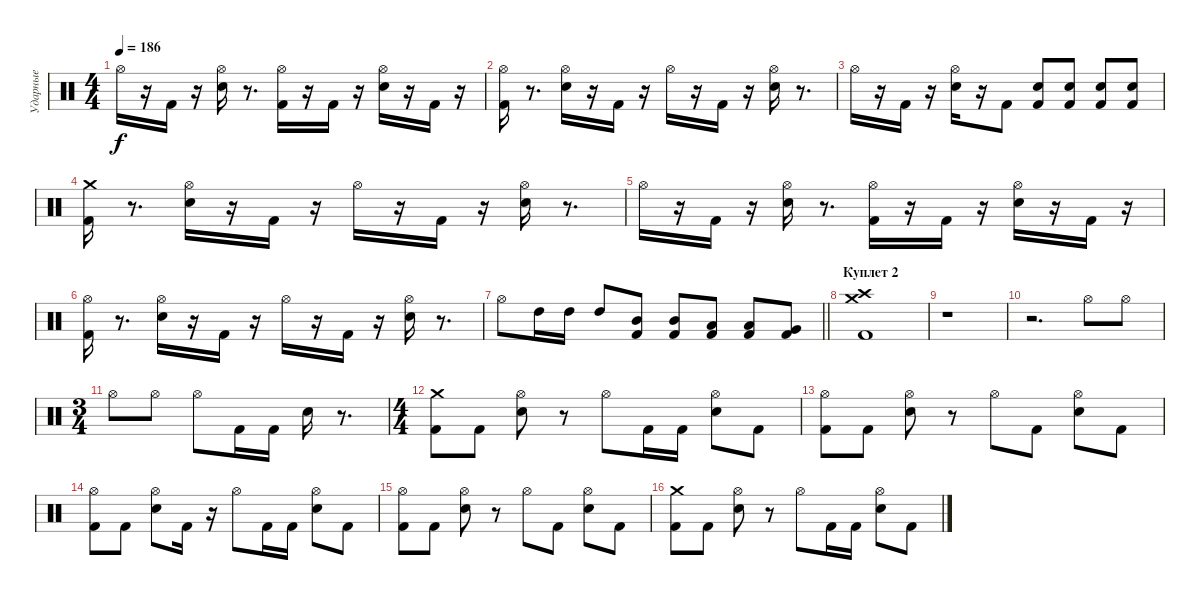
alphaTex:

\track ("Ударные" "Ударные") {instrument percussion}
\staff {score}
\articulation defaults
\ts (4 4)
\tempo 186
\clef neutral
\ks c "Hi-Hat (open)".16{dy f}
r.16 "Kick (hit) 2".16 r.16 ("Snare (hit) 2" "Hi-Hat (open)").16 r.8{d} ("Kick (hit) 2" "Hi-Hat (open)").16 r.16 "Kick (hit) 2".16 r.16 ("Snare (hit) 2" "Hi-Hat (open)").16 r.16 "Kick (hit) 2".16 r.16 |
("Kick (hit) 2" "Hi-Hat (open)").16 r.8{d} ("Snare (hit) 2" "Hi-Hat (open)").16 r.16 "Kick (hit) 2".16 r.16 "Hi-Hat (open)".16 r.16 "Kick (hit) 2".16 r.16 ("Snare (hit) 2" "Hi-Hat (open)").16 r.8{d} |
"Hi-Hat (open)".16 r.16 "Kick (hit) 2".16 r.16 ("Snare (hit) 2" "Hi-Hat (open)").16 r.16 "Kick (hit) 2".8 ("Kick (hit) 2" "Snare (hit) 2").8 ("Kick (hit) 2" "Snare (hit) 2").8 ("Kick (hit) 2" "Snare (hit) 2").8 ("Kick (hit) 2" "Snare (hit) 2").8 |
("Kick (hit) 2" "Crash medium (hit)").16 r.8{d} ("Snare (hit) 2" "Hi-Hat (open)").16 r.16 "Kick (hit) 2".16 r.16 "Hi-Hat (open)".16 r.16 "Kick (hit) 2".16 r.16 ("Snare (hit) 2" "Hi-Hat (open)").16 r.8{d} |
"Hi-Hat (open)".16 r.16 "Kick (hit) 2".16 r.16 ("Snare (hit) 2" "Hi-Hat (open)").16 r.8{d} ("Kick (hit) 2" "Hi-Hat (open)").16 r.16 "Kick (hit) 2".16 r.16 ("Snare (hit) 2" "Hi-Hat (open)").16 r.16 "Kick (hit) 2".16 r.16 |
("Kick (hit) 2" "Hi-Hat (open)").16 r.8{d} ("Snare (hit) 2" "Hi-Hat (open)").16 r.16 "Kick (hit) 2".16 r.16 "Hi-Hat (open)".16 r.16 "Kick (hit) 2".16 r.16 ("Snare (hit) 2" "Hi-Hat (open)").16 r.8{d} |
\barLineRight lightlight "Hi-Hat (open)".8 "High Tom (hit)".16 "High Tom (hit)".16 "High Tom (hit)".8
("Kick (hit) 2" "Mid Tom (hit)").8 ("Kick (hit) 2" "Mid Tom (hit)").8 ("Kick (hit) 2" "Low Tom (hit)").8 ("Kick (hit) 2" "Low Tom (hit)").8 ("Kick (hit) 2" "Very Low Tom (hit)").8 |
\section ("" "Куплет 2")
("Kick (hit) 2" "Crash high (hit)" "Crash medium (hit)").1 |
r.1 |
r.2{d} "Hi-Hat (open)".8 "Hi-Hat (open)".8 |
\ts (3 4)
"Hi-Hat (open)".8 "Hi-Hat (open)".8 "Hi-Hat (open)".8 "Kick (hit) 2".16 "Kick (hit) 2".16 "Snare (hit) 2".16 r.8{d} |
\ts (4 4)
("Kick (hit) 2" "Crash medium (hit)").8 "Kick (hit) 2".8 ("Snare (hit) 2" "Hi-Hat (open)").8 r.8 "Hi-Hat (open)".8 "Kick (hit) 2".16 "Kick (hit) 2".16 ("Snare (hit) 2" "Hi-Hat (open)").8 "Kick (hit) 2".8 |
("Kick (hit) 2" "Hi-Hat (open)").8 "Kick (hit) 2".8 ("Snare (hit) 2" "Hi-Hat (open)").8 r.8 "Hi-Hat (open)".8 "Kick (hit) 2".8 ("Snare (hit) 2" "Hi-Hat (open)").8 "Kick (hit) 2".8 |
("Kick (hit) 2" "Hi-Hat (open)").8 "Kick (hit) 2".8 ("Snare (hit) 2" "Hi-Hat (open)").8 "Kick (hit) 2".16 r.16 "Hi-Hat (open)".8 "Kick (hit) 2".16 "Kick (hit) 2".16 ("Snare (hit) 2" "Hi-Hat (open)").8 "Kick (hit) 2".8 |
("Kick (hit) 2" "Hi-Hat (open)").8 "Kick (hit) 2".8 ("Snare (hit) 2" "Hi-Hat (open)").8 r.8 "Hi-Hat (open)".8 "Kick (hit) 2".8 ("Snare (hit) 2" "Hi-Hat (open)").8 "Kick (hit) 2".8 |
("Kick (hit) 2" "Crash medium (hit)").8 "Kick (hit) 2".8 ("Snare (hit) 2" "Hi-Hat (open)").8 r.8 "Hi-Hat (open)".8 "Kick (hit) 2".16 "Kick (hit) 2".16 ("Snare (hit) 2" "Hi-Hat (open)").8 "Kick (hit) 2".8
